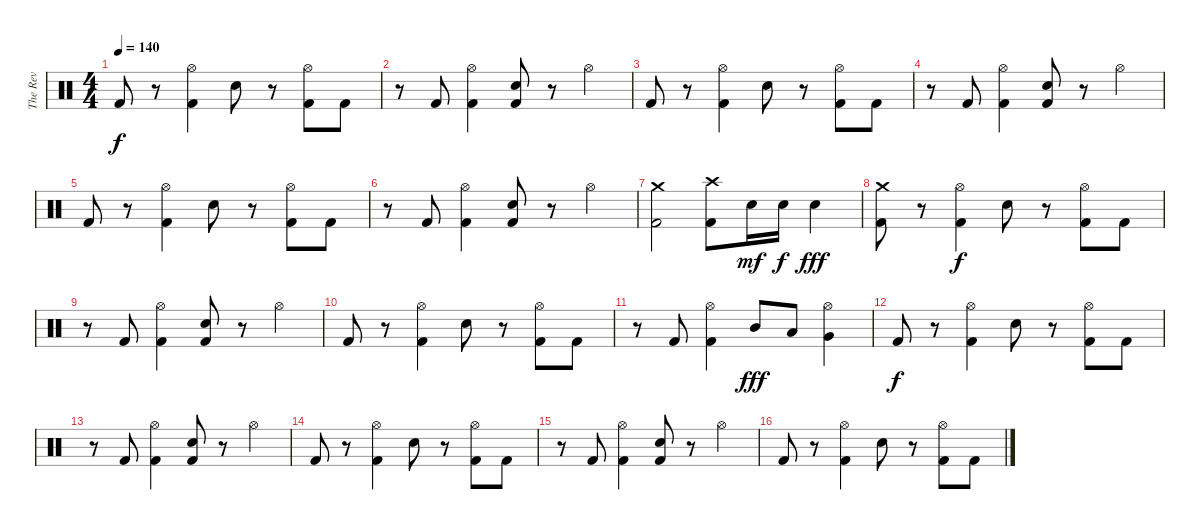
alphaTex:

\track ("The Rev" "The Rev") {instrument percussion}
\staff {score}
\articulation defaults
\ts (4 4)
\tempo 140
\clef neutral
\ks c "Kick (hit) 2".8{dy f}
r.8 ("Hi-Hat (open)" "Kick (hit) 2").4 "Snare (hit) 2".8 r.8 ("Hi-Hat (open)" "Kick (hit) 2").8 "Kick (hit) 2".8 |
r.8 "Kick (hit) 2".8 ("Hi-Hat (open)" "Kick (hit) 2").4 ("Snare (hit) 2" "Kick (hit) 2").8 r.8 "Hi-Hat (open)".4 |
"Kick (hit) 2".8 r.8 ("Hi-Hat (open)" "Kick (hit) 2").4 "Snare (hit) 2".8 r.8 ("Hi-Hat (open)" "Kick (hit) 2").8 "Kick (hit) 2".8 |
r.8 "Kick (hit) 2".8 ("Hi-Hat (open)" "Kick (hit) 2").4 ("Snare (hit) 2" "Kick (hit) 2").8 r.8 "Hi-Hat (open)".4 |
"Kick (hit) 2".8 r.8 ("Hi-Hat (open)" "Kick (hit) 2").4 "Snare (hit) 2".8 r.8 ("Hi-Hat (open)" "Kick (hit) 2").8 "Kick (hit) 2".8 |
r.8 "Kick (hit) 2".8 ("Hi-Hat (open)" "Kick (hit) 2").4 ("Snare (hit) 2" "Kick (hit) 2").8 r.8 "Hi-Hat (open)".4 |
("Crash medium (hit)" "Kick (hit) 2").2 ("Crash high (hit)" "Kick (hit) 2").8 "Snare (hit) 2".16{dy mf} "Snare (hit) 2".16{dy f} "Snare (hit) 2".4{dy fff} |
("Crash medium (hit)" "Kick (hit) 2").8 r.8 ("Hi-Hat (open)" "Kick (hit) 2").4{dy f} "Snare (hit) 2".8 r.8 ("Hi-Hat (open)" "Kick (hit) 2").8 "Kick (hit) 2".8 |
r.8 "Kick (hit) 2".8 ("Hi-Hat (open)" "Kick (hit) 2").4 ("Snare (hit) 2" "Kick (hit) 2").8 r.8 "Hi-Hat (open)".4 |
"Kick (hit) 2".8 r.8 ("Hi-Hat (open)" "Kick (hit) 2").4 "Snare (hit) 2".8 r.8 ("Hi-Hat (open)" "Kick (hit) 2").8 "Kick (hit) 2".8 |
r.8 "Kick (hit) 2".8 ("Hi-Hat (open)" "Kick (hit) 2").4 "Mid Tom (hit)".8{dy fff} "Low Tom (hit)".8 ("Hi-Hat (open)" "Very Low Tom (hit)").4 |
"Kick (hit) 2".8{dy f} r.8 ("Hi-Hat (open)" "Kick (hit) 2").4 "Snare (hit) 2".8 r.8 ("Hi-Hat (open)" "Kick (hit) 2").8 "Kick (hit) 2".8 |
r.8 "Kick (hit) 2".8 ("Hi-Hat (open)" "Kick (hit) 2").4 ("Snare (hit) 2" "Kick (hit) 2").8 r.8 "Hi-Hat (open)".4 |
"Kick (hit) 2".8 r.8 ("Hi-Hat (open)" "Kick (hit) 2").4 "Snare (hit) 2".8 r.8 ("Hi-Hat (open)" "Kick (hit) 2").8 "Kick (hit) 2".8 |
r.8 "Kick (hit) 2".8 ("Hi-Hat (open)" "Kick (hit) 2").4 ("Snare (hit) 2" "Kick (hit) 2").8 r.8 "Hi-Hat (open)".4 |
"Kick (hit) 2".8 r.8 ("Hi-Hat (open)" "Kick (hit) 2").4 "Snare (hit) 2".8 r.8 ("Hi-Hat (open)" "Kick (hit) 2").8 "Kick (hit) 2".8
